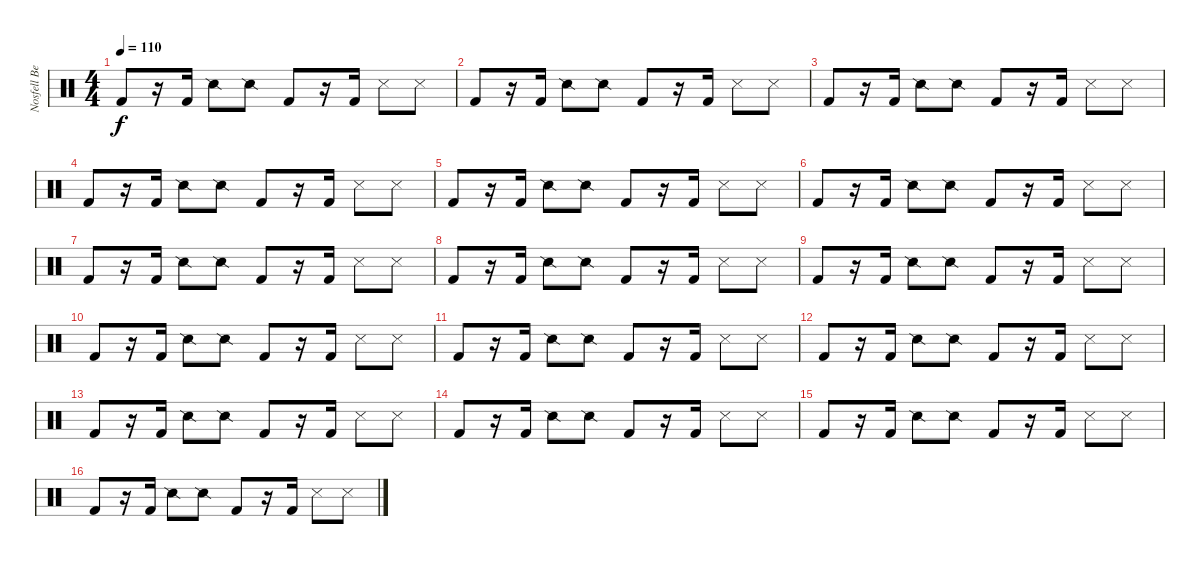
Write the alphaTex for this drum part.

\track ("Nosfell Beat Box" "Nosfell Be") {instrument percussion}
\staff {score}
\articulation defaults
\ts (4 4)
\tempo 110
\clef neutral
\ks c "Kick (hit) 2".8{dy f}
r.16 "Kick (hit) 2".16 "Snare (side stick) 2".8 "Snare (side stick) 2".8 "Kick (hit) 2".8 r.16 "Kick (hit) 2".16 "Snare (side stick) 3".8 "Snare (side stick) 3".8 |
"Kick (hit) 2".8 r.16 "Kick (hit) 2".16 "Snare (side stick) 2".8 "Snare (side stick) 2".8 "Kick (hit) 2".8 r.16 "Kick (hit) 2".16 "Snare (side stick) 3".8 "Snare (side stick) 3".8 |
"Kick (hit) 2".8 r.16 "Kick (hit) 2".16 "Snare (side stick) 2".8 "Snare (side stick) 2".8 "Kick (hit) 2".8 r.16 "Kick (hit) 2".16 "Snare (side stick) 3".8 "Snare (side stick) 3".8 |
"Kick (hit) 2".8 r.16 "Kick (hit) 2".16 "Snare (side stick) 2".8 "Snare (side stick) 2".8 "Kick (hit) 2".8 r.16 "Kick (hit) 2".16 "Snare (side stick) 3".8 "Snare (side stick) 3".8 |
"Kick (hit) 2".8 r.16 "Kick (hit) 2".16 "Snare (side stick) 2".8 "Snare (side stick) 2".8 "Kick (hit) 2".8 r.16 "Kick (hit) 2".16 "Snare (side stick) 3".8 "Snare (side stick) 3".8 |
"Kick (hit) 2".8 r.16 "Kick (hit) 2".16 "Snare (side stick) 2".8 "Snare (side stick) 2".8 "Kick (hit) 2".8 r.16 "Kick (hit) 2".16 "Snare (side stick) 3".8 "Snare (side stick) 3".8 |
"Kick (hit) 2".8 r.16 "Kick (hit) 2".16 "Snare (side stick) 2".8 "Snare (side stick) 2".8 "Kick (hit) 2".8 r.16 "Kick (hit) 2".16 "Snare (side stick) 3".8 "Snare (side stick) 3".8 |
"Kick (hit) 2".8 r.16 "Kick (hit) 2".16 "Snare (side stick) 2".8 "Snare (side stick) 2".8 "Kick (hit) 2".8 r.16 "Kick (hit) 2".16 "Snare (side stick) 3".8 "Snare (side stick) 3".8 |
"Kick (hit) 2".8 r.16 "Kick (hit) 2".16 "Snare (side stick) 2".8 "Snare (side stick) 2".8 "Kick (hit) 2".8 r.16 "Kick (hit) 2".16 "Snare (side stick) 3".8 "Snare (side stick) 3".8 |
"Kick (hit) 2".8 r.16 "Kick (hit) 2".16 "Snare (side stick) 2".8 "Snare (side stick) 2".8 "Kick (hit) 2".8 r.16 "Kick (hit) 2".16 "Snare (side stick) 3".8 "Snare (side stick) 3".8 |
"Kick (hit) 2".8 r.16 "Kick (hit) 2".16 "Snare (side stick) 2".8 "Snare (side stick) 2".8 "Kick (hit) 2".8 r.16 "Kick (hit) 2".16 "Snare (side stick) 3".8 "Snare (side stick) 3".8 |
"Kick (hit) 2".8 r.16 "Kick (hit) 2".16 "Snare (side stick) 2".8 "Snare (side stick) 2".8 "Kick (hit) 2".8 r.16 "Kick (hit) 2".16 "Snare (side stick) 3".8 "Snare (side stick) 3".8 |
"Kick (hit) 2".8 r.16 "Kick (hit) 2".16 "Snare (side stick) 2".8 "Snare (side stick) 2".8 "Kick (hit) 2".8 r.16 "Kick (hit) 2".16 "Snare (side stick) 3".8 "Snare (side stick) 3".8 |
"Kick (hit) 2".8 r.16 "Kick (hit) 2".16 "Snare (side stick) 2".8 "Snare (side stick) 2".8 "Kick (hit) 2".8 r.16 "Kick (hit) 2".16 "Snare (side stick) 3".8 "Snare (side stick) 3".8 |
"Kick (hit) 2".8 r.16 "Kick (hit) 2".16 "Snare (side stick) 2".8 "Snare (side stick) 2".8 "Kick (hit) 2".8 r.16 "Kick (hit) 2".16 "Snare (side stick) 3".8 "Snare (side stick) 3".8 |
"Kick (hit) 2".8 r.16 "Kick (hit) 2".16 "Snare (side stick) 2".8 "Snare (side stick) 2".8 "Kick (hit) 2".8 r.16 "Kick (hit) 2".16 "Snare (side stick) 3".8 "Snare (side stick) 3".8
